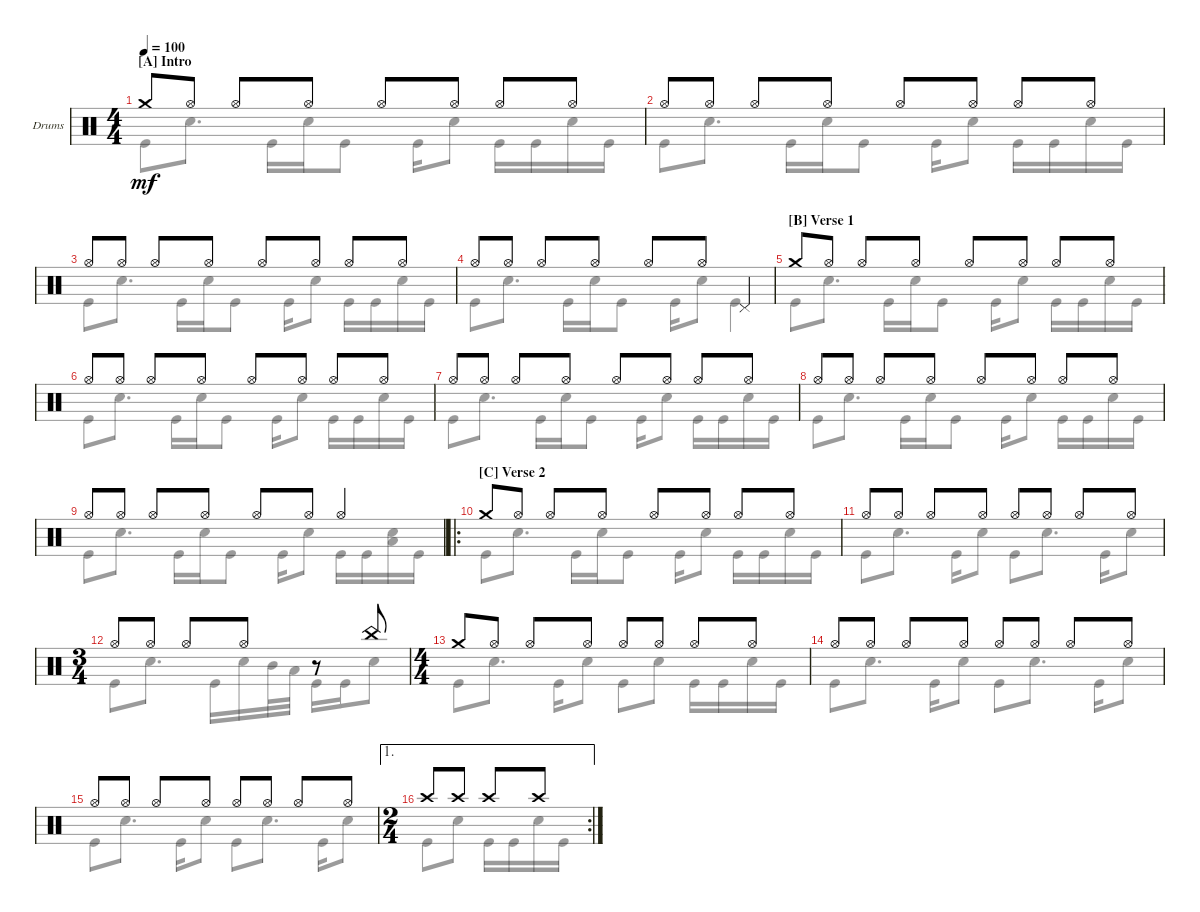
\defaultSystemsLayout 4
\bracketExtendMode groupsimilarinstruments
\firstSystemTrackNameOrientation horizontal
\otherSystemsTrackNameOrientation horizontal
\track ("Drumkit" "Drums") {instrument percussion}
\staff {score}
\articulation defaults
\voice
\ts (4 4)
\section ("A" "Intro")
\tempo 100
\clef neutral
\ks c "Crash medium (hit)".8{dy mf} "Hi-Hat (open)".8 "Hi-Hat (open)".8 "Hi-Hat (open)".8 "Hi-Hat (open)".8 "Hi-Hat (open)".8 "Hi-Hat (open)".8 "Hi-Hat (open)".8
|
"Hi-Hat (open)".8 "Hi-Hat (open)".8 "Hi-Hat (open)".8 "Hi-Hat (open)".8 "Hi-Hat (open)".8 "Hi-Hat (open)".8 "Hi-Hat (open)".8 "Hi-Hat (open)".8 |
"Hi-Hat (open)".8 "Hi-Hat (open)".8 "Hi-Hat (open)".8 "Hi-Hat (open)".8 "Hi-Hat (open)".8 "Hi-Hat (open)".8 "Hi-Hat (open)".8 "Hi-Hat (open)".8 |
"Hi-Hat (open)".8 "Hi-Hat (open)".8 "Hi-Hat (open)".8 "Hi-Hat (open)".8 "Hi-Hat (open)".8 "Hi-Hat (open)".8 "Pedal Hi-Hat (hit)".4 |
\section ("B" "Verse 1")
"Crash medium (hit)".8 "Hi-Hat (open)".8 "Hi-Hat (open)".8 "Hi-Hat (open)".8 "Hi-Hat (open)".8 "Hi-Hat (open)".8 "Hi-Hat (open)".8 "Hi-Hat (open)".8 |
"Hi-Hat (open)".8 "Hi-Hat (open)".8 "Hi-Hat (open)".8 "Hi-Hat (open)".8 "Hi-Hat (open)".8 "Hi-Hat (open)".8 "Hi-Hat (open)".8 "Hi-Hat (open)".8 |
"Hi-Hat (open)".8 "Hi-Hat (open)".8 "Hi-Hat (open)".8 "Hi-Hat (open)".8 "Hi-Hat (open)".8 "Hi-Hat (open)".8 "Hi-Hat (open)".8 "Hi-Hat (open)".8 |
"Hi-Hat (open)".8 "Hi-Hat (open)".8 "Hi-Hat (open)".8 "Hi-Hat (open)".8 "Hi-Hat (open)".8 "Hi-Hat (open)".8 "Hi-Hat (open)".8 "Hi-Hat (open)".8 |
"Hi-Hat (open)".8 "Hi-Hat (open)".8 "Hi-Hat (open)".8 "Hi-Hat (open)".8 "Hi-Hat (open)".8 "Hi-Hat (open)".8 "Hi-Hat (open)".4 |
\ro
\section ("C" "Verse 2")
"Crash medium (hit)".8 "Hi-Hat (open)".8 "Hi-Hat (open)".8 "Hi-Hat (open)".8 "Hi-Hat (open)".8 "Hi-Hat (open)".8 "Hi-Hat (open)".8 "Hi-Hat (open)".8 |
"Hi-Hat (open)".8 "Hi-Hat (open)".8 "Hi-Hat (open)".8 "Hi-Hat (open)".8 "Hi-Hat (open)".8 "Hi-Hat (open)".8 "Hi-Hat (open)".8 "Hi-Hat (open)".8 |
\ts (3 4)
"Hi-Hat (open)".8 "Hi-Hat (open)".8 "Hi-Hat (open)".8 "Hi-Hat (open)".8 r.8 "China (hit)".8 |
\ts (4 4)
"Crash medium (hit)".8 "Hi-Hat (open)".8 "Hi-Hat (open)".8 "Hi-Hat (open)".8 "Hi-Hat (open)".8 "Hi-Hat (open)".8 "Hi-Hat (open)".8 "Hi-Hat (open)".8 |
"Hi-Hat (open)".8 "Hi-Hat (open)".8 "Hi-Hat (open)".8 "Hi-Hat (open)".8 "Hi-Hat (open)".8 "Hi-Hat (open)".8 "Hi-Hat (open)".8 "Hi-Hat (open)".8 |
"Hi-Hat (open)".8 "Hi-Hat (open)".8 "Hi-Hat (open)".8 "Hi-Hat (open)".8 "Hi-Hat (open)".8 "Hi-Hat (open)".8 "Hi-Hat (open)".8 "Hi-Hat (open)".8 |
\ae 1
\rc 2
\ts (2 4)
"Crash high (hit)".8 "Crash high (hit)".8 "Crash high (hit)".8 "Crash high (hit)".8
\voice
\clef neutral
\ottava regular
\simile none
\ks c "Kick (hit)".8{dy mf} "Snare (hit) 2".8{d} "Kick (hit)".16 "Snare (hit) 2".16 "Kick (hit)".8 "Kick (hit)".16 "Snare (hit) 2".8 "Kick (hit)".16 "Kick (hit)".16 "Snare (hit) 2".16 "Kick (hit)".16
|
"Kick (hit)".8 "Snare (hit) 2".8{d} "Kick (hit)".16 "Snare (hit) 2".16 "Kick (hit)".8 "Kick (hit)".16 "Snare (hit) 2".8 "Kick (hit)".16 "Kick (hit)".16 "Snare (hit) 2".16 "Kick (hit)".16 |
"Kick (hit)".8 "Snare (hit) 2".8{d} "Kick (hit)".16 "Snare (hit) 2".16 "Kick (hit)".8 "Kick (hit)".16 "Snare (hit) 2".8 "Kick (hit)".16 "Kick (hit)".16 "Snare (hit) 2".16 "Kick (hit)".16 |
"Kick (hit)".8 "Snare (hit) 2".8{d} "Kick (hit)".16 "Snare (hit) 2".16 "Kick (hit)".8 "Kick (hit)".16 "Snare (hit) 2".8 "Kick (hit)".4 |
"Kick (hit)".8 "Snare (hit) 2".8{d} "Kick (hit)".16 "Snare (hit) 2".16 "Kick (hit)".8 "Kick (hit)".16 "Snare (hit) 2".8 "Kick (hit)".16 "Kick (hit)".16 "Snare (hit) 2".16 "Kick (hit)".16 |
"Kick (hit)".8 "Snare (hit) 2".8{d} "Kick (hit)".16 "Snare (hit) 2".16 "Kick (hit)".8 "Kick (hit)".16 "Snare (hit) 2".8 "Kick (hit)".16 "Kick (hit)".16 "Snare (hit) 2".16 "Kick (hit)".16 |
"Kick (hit)".8 "Snare (hit) 2".8{d} "Kick (hit)".16 "Snare (hit) 2".16 "Kick (hit)".8 "Kick (hit)".16 "Snare (hit) 2".8 "Kick (hit)".16 "Kick (hit)".16 "Snare (hit) 2".16 "Kick (hit)".16 |
"Kick (hit)".8 "Snare (hit) 2".8{d} "Kick (hit)".16 "Snare (hit) 2".16 "Kick (hit)".8 "Kick (hit)".16 "Snare (hit) 2".8 "Kick (hit)".16 "Kick (hit)".16 "Snare (hit) 2".16 "Kick (hit)".16 |
"Kick (hit)".8 "Snare (hit) 2".8{d} "Kick (hit)".16 "Snare (hit) 2".16 "Kick (hit)".8 "Kick (hit)".16 "Snare (hit) 2".8 "Kick (hit)".16 "Kick (hit)".16 ("Snare (hit) 2" "Low Tom (hit)").16 "Kick (hit)".16 |
"Kick (hit)".8 "Snare (hit) 2".8{d} "Kick (hit)".16 "Snare (hit) 2".16 "Kick (hit)".8 "Kick (hit)".16 "Snare (hit) 2".8 "Kick (hit)".16 "Kick (hit)".16 "Snare (hit) 2".16 "Kick (hit)".16 |
"Kick (hit)".8 "Snare (hit) 2".8{d} "Kick (hit)".16 "Snare (hit) 2".8 "Kick (hit)".8 "Snare (hit) 2".8{d} "Kick (hit)".16 "Snare (hit) 2".8 |
"Kick (hit)".8 "Snare (hit) 2".8{d} "Kick (hit)".16 "Snare (hit) 2".16 "Mid Tom (hit)".32 "Low Tom (hit)".32 "Kick (hit)".16 "Kick (hit)".16 "Snare (hit) 2".8 |
"Kick (hit)".8 "Snare (hit) 2".8{d} "Kick (hit)".16 "Snare (hit) 2".8 "Kick (hit)".8 "Snare (hit) 2".8 "Kick (hit)".16 "Kick (hit)".16 "Snare (hit) 2".16 "Kick (hit)".16 |
"Kick (hit)".8 "Snare (hit) 2".8{d} "Kick (hit)".16 "Snare (hit) 2".8 "Kick (hit)".8 "Snare (hit) 2".8{d} "Kick (hit)".16 "Snare (hit) 2".8 |
"Kick (hit)".8 "Snare (hit) 2".8{d} "Kick (hit)".16 "Snare (hit) 2".8 "Kick (hit)".8 "Snare (hit) 2".8{d} "Kick (hit)".16 "Snare (hit) 2".8 |
"Kick (hit)".8 "Snare (hit) 2".8 "Kick (hit)".16 "Kick (hit)".16 "Snare (hit) 2".16 "Kick (hit)".16
